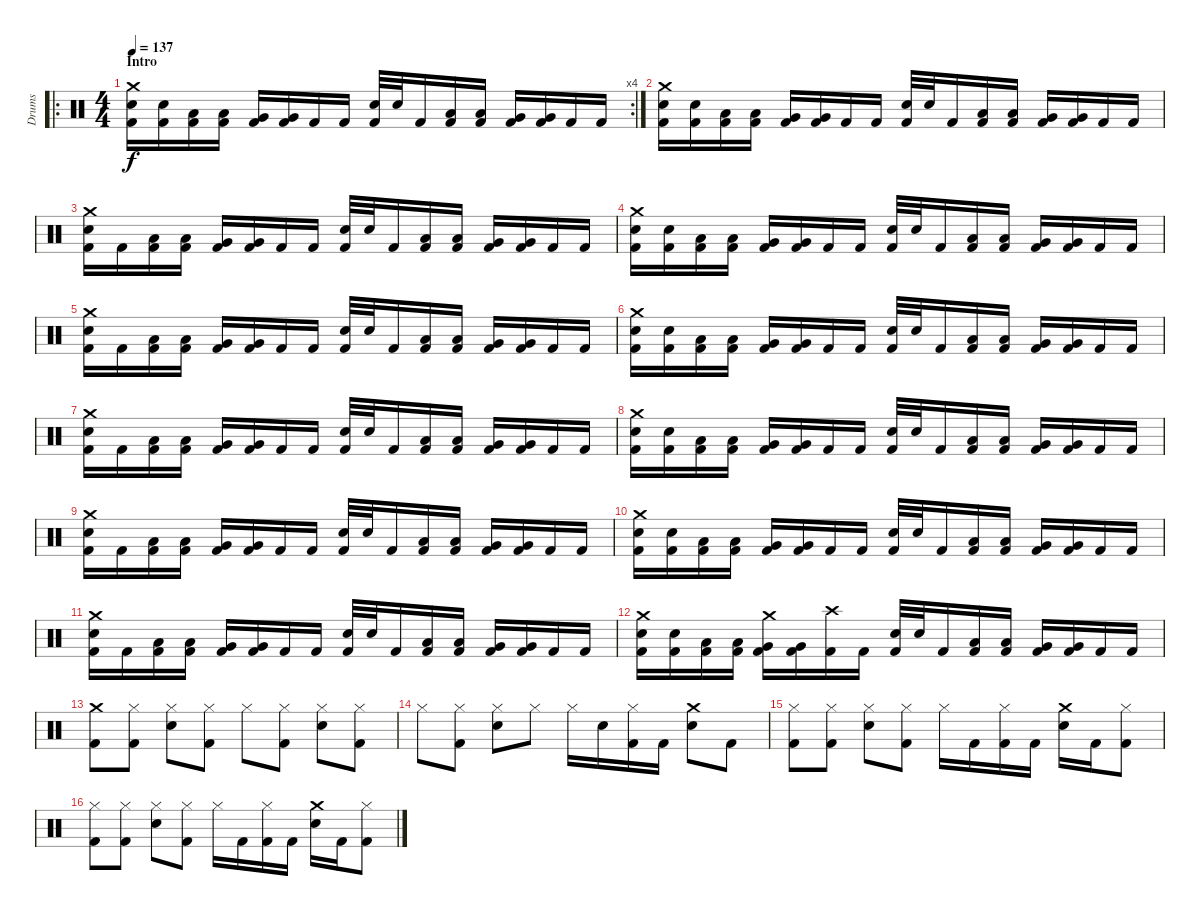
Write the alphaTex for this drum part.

\track ("Drums" "Drums") {instrument percussion}
\staff {score}
\articulation defaults
\ro
\rc 4
\ts (4 4)
\section ("" "Intro")
\tempo 137
\clef neutral
\ks c
("Crash medium (hit)" "Electric Snare (hit)" "Kick (hit) 2").16{dy f} ("Electric Snare (hit)" "Kick (hit) 2").16 ("Low Tom (hit)" "Kick (hit) 2").16 ("Low Tom (hit)" "Kick (hit) 2").16 ("Very Low Tom (hit)" "Kick (hit) 2").16 ("Very Low Tom (hit)" "Kick (hit) 2").16 "Kick (hit) 2".16 "Kick (hit) 2".16 ("Electric Snare (hit)" "Kick (hit) 2").32 "Electric Snare (hit)".32 "Kick (hit) 2".16 ("Low Tom (hit)" "Kick (hit) 2").16 ("Low Tom (hit)" "Kick (hit) 2").16 ("Very Low Tom (hit)" "Kick (hit) 2").16 ("Very Low Tom (hit)" "Kick (hit) 2").16 "Kick (hit) 2".16 "Kick (hit) 2".16 |
("Crash medium (hit)" "Electric Snare (hit)" "Kick (hit) 2").16 ("Electric Snare (hit)" "Kick (hit) 2").16 ("Low Tom (hit)" "Kick (hit) 2").16 ("Low Tom (hit)" "Kick (hit) 2").16 ("Very Low Tom (hit)" "Kick (hit) 2").16 ("Very Low Tom (hit)" "Kick (hit) 2").16 "Kick (hit) 2".16 "Kick (hit) 2".16 ("Electric Snare (hit)" "Kick (hit) 2").32 "Electric Snare (hit)".32 "Kick (hit) 2".16 ("Low Tom (hit)" "Kick (hit) 2").16 ("Low Tom (hit)" "Kick (hit) 2").16 ("Very Low Tom (hit)" "Kick (hit) 2").16 ("Very Low Tom (hit)" "Kick (hit) 2").16 "Kick (hit) 2".16 "Kick (hit) 2".16 |
("Crash medium (hit)" "Electric Snare (hit)" "Kick (hit) 2").16 "Kick (hit) 2".16 ("Low Tom (hit)" "Kick (hit) 2").16 ("Low Tom (hit)" "Kick (hit) 2").16 ("Very Low Tom (hit)" "Kick (hit) 2").16 ("Very Low Tom (hit)" "Kick (hit) 2").16 "Kick (hit) 2".16 "Kick (hit) 2".16 ("Electric Snare (hit)" "Kick (hit) 2").32 "Electric Snare (hit)".32 "Kick (hit) 2".16 ("Low Tom (hit)" "Kick (hit) 2").16 ("Low Tom (hit)" "Kick (hit) 2").16 ("Very Low Tom (hit)" "Kick (hit) 2").16 ("Very Low Tom (hit)" "Kick (hit) 2").16 "Kick (hit) 2".16 "Kick (hit) 2".16 |
("Crash medium (hit)" "Electric Snare (hit)" "Kick (hit) 2").16 ("Electric Snare (hit)" "Kick (hit) 2").16 ("Low Tom (hit)" "Kick (hit) 2").16 ("Low Tom (hit)" "Kick (hit) 2").16 ("Very Low Tom (hit)" "Kick (hit) 2").16 ("Very Low Tom (hit)" "Kick (hit) 2").16 "Kick (hit) 2".16 "Kick (hit) 2".16 ("Electric Snare (hit)" "Kick (hit) 2").32 "Electric Snare (hit)".32 "Kick (hit) 2".16 ("Low Tom (hit)" "Kick (hit) 2").16 ("Low Tom (hit)" "Kick (hit) 2").16 ("Very Low Tom (hit)" "Kick (hit) 2").16 ("Very Low Tom (hit)" "Kick (hit) 2").16 "Kick (hit) 2".16 "Kick (hit) 2".16 |
("Crash medium (hit)" "Electric Snare (hit)" "Kick (hit) 2").16 "Kick (hit) 2".16 ("Low Tom (hit)" "Kick (hit) 2").16 ("Low Tom (hit)" "Kick (hit) 2").16 ("Very Low Tom (hit)" "Kick (hit) 2").16 ("Very Low Tom (hit)" "Kick (hit) 2").16 "Kick (hit) 2".16 "Kick (hit) 2".16 ("Electric Snare (hit)" "Kick (hit) 2").32 "Electric Snare (hit)".32 "Kick (hit) 2".16 ("Low Tom (hit)" "Kick (hit) 2").16 ("Low Tom (hit)" "Kick (hit) 2").16 ("Very Low Tom (hit)" "Kick (hit) 2").16 ("Very Low Tom (hit)" "Kick (hit) 2").16 "Kick (hit) 2".16 "Kick (hit) 2".16 |
("Crash medium (hit)" "Electric Snare (hit)" "Kick (hit) 2").16 ("Electric Snare (hit)" "Kick (hit) 2").16 ("Low Tom (hit)" "Kick (hit) 2").16 ("Low Tom (hit)" "Kick (hit) 2").16 ("Very Low Tom (hit)" "Kick (hit) 2").16 ("Very Low Tom (hit)" "Kick (hit) 2").16 "Kick (hit) 2".16 "Kick (hit) 2".16 ("Electric Snare (hit)" "Kick (hit) 2").32 "Electric Snare (hit)".32 "Kick (hit) 2".16 ("Low Tom (hit)" "Kick (hit) 2").16 ("Low Tom (hit)" "Kick (hit) 2").16 ("Very Low Tom (hit)" "Kick (hit) 2").16 ("Very Low Tom (hit)" "Kick (hit) 2").16 "Kick (hit) 2".16 "Kick (hit) 2".16 |
("Crash medium (hit)" "Electric Snare (hit)" "Kick (hit) 2").16 "Kick (hit) 2".16 ("Low Tom (hit)" "Kick (hit) 2").16 ("Low Tom (hit)" "Kick (hit) 2").16 ("Very Low Tom (hit)" "Kick (hit) 2").16 ("Very Low Tom (hit)" "Kick (hit) 2").16 "Kick (hit) 2".16 "Kick (hit) 2".16 ("Electric Snare (hit)" "Kick (hit) 2").32 "Electric Snare (hit)".32 "Kick (hit) 2".16 ("Low Tom (hit)" "Kick (hit) 2").16 ("Low Tom (hit)" "Kick (hit) 2").16 ("Very Low Tom (hit)" "Kick (hit) 2").16 ("Very Low Tom (hit)" "Kick (hit) 2").16 "Kick (hit) 2".16 "Kick (hit) 2".16 |
("Crash medium (hit)" "Electric Snare (hit)" "Kick (hit) 2").16 ("Electric Snare (hit)" "Kick (hit) 2").16 ("Low Tom (hit)" "Kick (hit) 2").16 ("Low Tom (hit)" "Kick (hit) 2").16 ("Very Low Tom (hit)" "Kick (hit) 2").16 ("Very Low Tom (hit)" "Kick (hit) 2").16 "Kick (hit) 2".16 "Kick (hit) 2".16 ("Electric Snare (hit)" "Kick (hit) 2").32 "Electric Snare (hit)".32 "Kick (hit) 2".16 ("Low Tom (hit)" "Kick (hit) 2").16 ("Low Tom (hit)" "Kick (hit) 2").16 ("Very Low Tom (hit)" "Kick (hit) 2").16 ("Very Low Tom (hit)" "Kick (hit) 2").16 "Kick (hit) 2".16 "Kick (hit) 2".16 |
("Crash medium (hit)" "Electric Snare (hit)" "Kick (hit) 2").16 "Kick (hit) 2".16 ("Low Tom (hit)" "Kick (hit) 2").16 ("Low Tom (hit)" "Kick (hit) 2").16 ("Very Low Tom (hit)" "Kick (hit) 2").16 ("Very Low Tom (hit)" "Kick (hit) 2").16 "Kick (hit) 2".16 "Kick (hit) 2".16 ("Electric Snare (hit)" "Kick (hit) 2").32 "Electric Snare (hit)".32 "Kick (hit) 2".16 ("Low Tom (hit)" "Kick (hit) 2").16 ("Low Tom (hit)" "Kick (hit) 2").16 ("Very Low Tom (hit)" "Kick (hit) 2").16 ("Very Low Tom (hit)" "Kick (hit) 2").16 "Kick (hit) 2".16 "Kick (hit) 2".16 |
("Crash medium (hit)" "Electric Snare (hit)" "Kick (hit) 2").16 ("Electric Snare (hit)" "Kick (hit) 2").16 ("Low Tom (hit)" "Kick (hit) 2").16 ("Low Tom (hit)" "Kick (hit) 2").16 ("Very Low Tom (hit)" "Kick (hit) 2").16 ("Very Low Tom (hit)" "Kick (hit) 2").16 "Kick (hit) 2".16 "Kick (hit) 2".16 ("Electric Snare (hit)" "Kick (hit) 2").32 "Electric Snare (hit)".32 "Kick (hit) 2".16 ("Low Tom (hit)" "Kick (hit) 2").16 ("Low Tom (hit)" "Kick (hit) 2").16 ("Very Low Tom (hit)" "Kick (hit) 2").16 ("Very Low Tom (hit)" "Kick (hit) 2").16 "Kick (hit) 2".16 "Kick (hit) 2".16 |
("Crash medium (hit)" "Electric Snare (hit)" "Kick (hit) 2").16 "Kick (hit) 2".16 ("Low Tom (hit)" "Kick (hit) 2").16 ("Low Tom (hit)" "Kick (hit) 2").16 ("Very Low Tom (hit)" "Kick (hit) 2").16 ("Very Low Tom (hit)" "Kick (hit) 2").16 "Kick (hit) 2".16 "Kick (hit) 2".16 ("Electric Snare (hit)" "Kick (hit) 2").32 "Electric Snare (hit)".32 "Kick (hit) 2".16 ("Low Tom (hit)" "Kick (hit) 2").16 ("Low Tom (hit)" "Kick (hit) 2").16 ("Very Low Tom (hit)" "Kick (hit) 2").16 ("Very Low Tom (hit)" "Kick (hit) 2").16 "Kick (hit) 2".16 "Kick (hit) 2".16 |
("Crash medium (hit)" "Electric Snare (hit)" "Kick (hit) 2").16 ("Electric Snare (hit)" "Kick (hit) 2").16 ("Low Tom (hit)" "Kick (hit) 2").16 ("Low Tom (hit)" "Kick (hit) 2").16 ("Crash medium (hit)" "Very Low Tom (hit)" "Kick (hit) 2").16 ("Very Low Tom (hit)" "Kick (hit) 2").16 ("Crash high (hit)" "Kick (hit) 2").16 "Kick (hit) 2".16 ("Electric Snare (hit)" "Kick (hit) 2").32 "Electric Snare (hit)".32 "Kick (hit) 2".16 ("Low Tom (hit)" "Kick (hit) 2").16 ("Low Tom (hit)" "Kick (hit) 2").16 ("Very Low Tom (hit)" "Kick (hit) 2").16 ("Very Low Tom (hit)" "Kick (hit) 2").16 "Kick (hit) 2".16 "Kick (hit) 2".16 |
("Crash medium (hit)" "Kick (hit) 2").8 ("Hi-Hat (closed)" "Kick (hit) 2").8 ("Hi-Hat (closed)" "Electric Snare (hit)").8 ("Hi-Hat (closed)" "Kick (hit) 2").8 "Hi-Hat (closed)".8 ("Hi-Hat (closed)" "Kick (hit) 2").8 ("Hi-Hat (closed)" "Electric Snare (hit)").8 ("Hi-Hat (closed)" "Kick (hit) 2").8 |
"Hi-Hat (closed)".8 ("Hi-Hat (closed)" "Kick (hit) 2").8 ("Hi-Hat (closed)" "Electric Snare (hit)").8 "Hi-Hat (closed)".8 "Hi-Hat (closed)".16 "Electric Snare (hit)".16 ("Hi-Hat (closed)" "Kick (hit) 2").16 "Kick (hit) 2".16 ("Crash medium (hit)" "Electric Snare (hit)").8 "Kick (hit) 2".8 |
("Hi-Hat (closed)" "Kick (hit) 2").8 ("Hi-Hat (closed)" "Kick (hit) 2").8 ("Hi-Hat (closed)" "Electric Snare (hit)").8 ("Hi-Hat (closed)" "Kick (hit) 2").8 "Hi-Hat (closed)".16 "Kick (hit) 2".16 ("Hi-Hat (closed)" "Kick (hit) 2").16 "Kick (hit) 2".16 ("Crash medium (hit)" "Electric Snare (hit)").16 "Kick (hit) 2".16 ("Hi-Hat (closed)" "Kick (hit) 2").8 |
("Hi-Hat (closed)" "Kick (hit) 2").8 ("Hi-Hat (closed)" "Kick (hit) 2").8 ("Hi-Hat (closed)" "Electric Snare (hit)").8 ("Hi-Hat (closed)" "Kick (hit) 2").8 "Hi-Hat (closed)".16 "Kick (hit) 2".16 ("Hi-Hat (closed)" "Kick (hit) 2").16 "Kick (hit) 2".16 ("Crash medium (hit)" "Electric Snare (hit)").16 "Kick (hit) 2".16 ("Hi-Hat (closed)" "Kick (hit) 2").8
